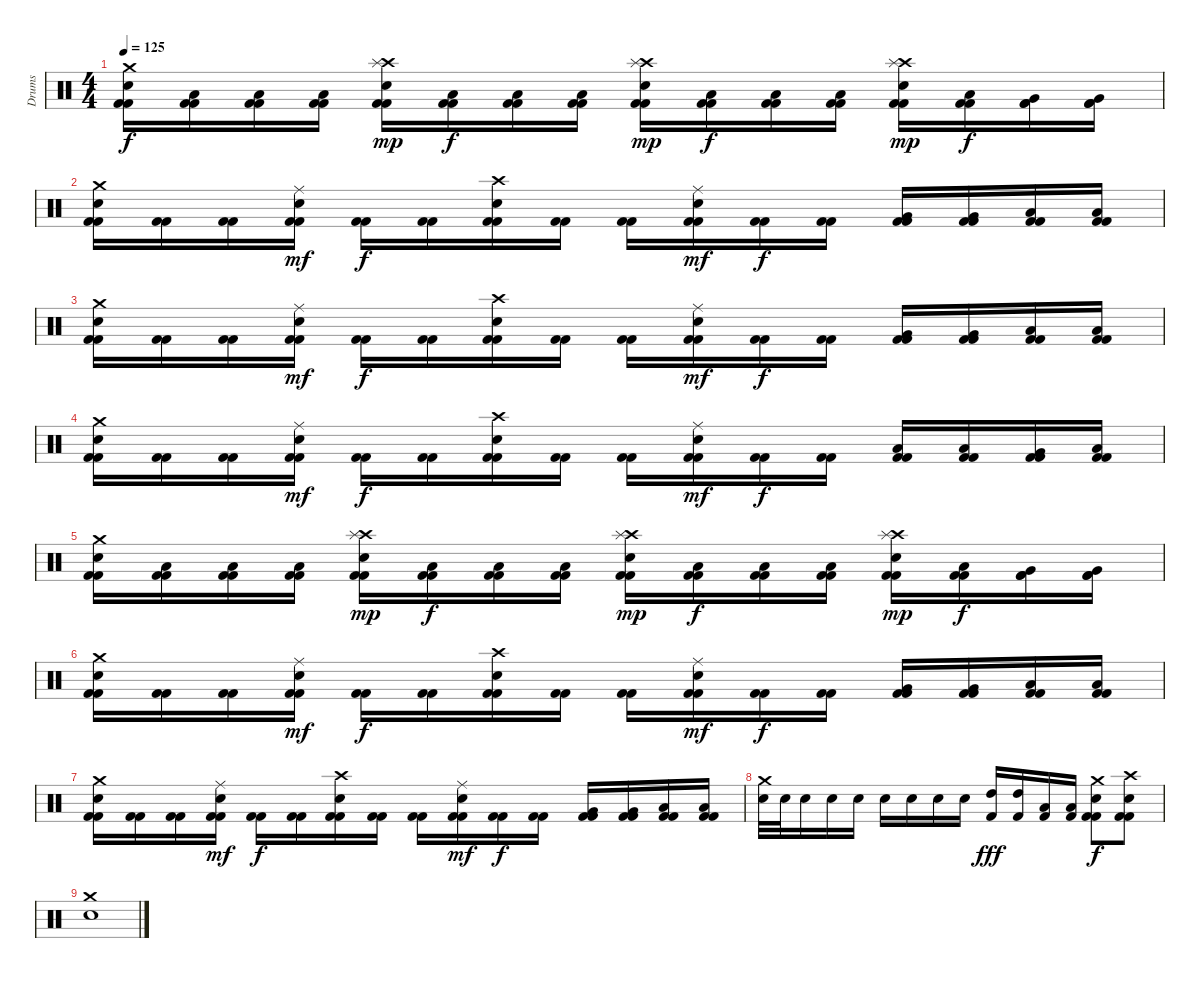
\track ("Drums" "Drums") {instrument percussion}
\staff {score}
\articulation defaults
\ts (4 4)
\tempo 125
\clef neutral
\ks c
("Crash medium (hit)" "Electric Snare (hit)" "Kick (hit) 2" "Kick (hit) 2").16{dy f} ("Low Floor Tom (hit)" "Kick (hit) 2" "Kick (hit) 2").16 ("Low Floor Tom (hit)" "Kick (hit) 2" "Kick (hit) 2").16 ("Low Floor Tom (hit)" "Kick (hit) 2" "Kick (hit) 2").16 ("Crash high (hit)" "Splash (hit)" "Electric Snare (hit)" "Kick (hit) 2" "Kick (hit) 2").16{dy mp} ("Low Floor Tom (hit)" "Kick (hit) 2" "Kick (hit) 2").16{dy f} ("Low Floor Tom (hit)" "Kick (hit) 2" "Kick (hit) 2").16 ("Low Floor Tom (hit)" "Kick (hit) 2" "Kick (hit) 2").16 ("Crash high (hit)" "Splash (hit)" "Electric Snare (hit)" "Kick (hit) 2" "Kick (hit) 2").16{dy mp} ("Low Floor Tom (hit)" "Kick (hit) 2" "Kick (hit) 2").16{dy f} ("Low Tom (hit)" "Kick (hit) 2" "Kick (hit) 2").16 ("Low Tom (hit)" "Kick (hit) 2" "Kick (hit) 2").16 ("Crash high (hit)" "Splash (hit)" "Electric Snare (hit)" "Kick (hit) 2" "Kick (hit) 2").16{dy mp} ("Low Floor Tom (hit)" "Kick (hit) 2" "Kick (hit) 2").16{dy f} ("Very Low Tom (hit)" "Kick (hit) 2" "Kick (hit) 2").16 ("Very Low Tom (hit)" "Kick (hit) 2" "Kick (hit) 2").16 |
("Crash medium (hit)" "Electric Snare (hit)" "Kick (hit) 2" "Kick (hit) 2").16 ("Kick (hit) 2" "Kick (hit) 2").16 ("Kick (hit) 2" "Kick (hit) 2").16 ("Ride (middle)" "Electric Snare (hit)" "Kick (hit) 2" "Kick (hit) 2").16{dy mf} ("Kick (hit) 2" "Kick (hit) 2").16{dy f} ("Kick (hit) 2" "Kick (hit) 2").16 ("Crash high (hit)" "Electric Snare (hit)" "Kick (hit) 2" "Kick (hit) 2").16 ("Kick (hit) 2" "Kick (hit) 2").16 ("Kick (hit) 2" "Kick (hit) 2").16 ("Ride (middle)" "Electric Snare (hit)" "Kick (hit) 2" "Kick (hit) 2").16{dy mf} ("Kick (hit) 2" "Kick (hit) 2").16{dy f} ("Kick (hit) 2" "Kick (hit) 2").16 ("Very Low Tom (hit)" "Kick (hit) 2" "Kick (hit) 2").16 ("Very Low Tom (hit)" "Kick (hit) 2" "Kick (hit) 2").16 ("Low Floor Tom (hit)" "Kick (hit) 2" "Kick (hit) 2").16 ("Low Floor Tom (hit)" "Kick (hit) 2" "Kick (hit) 2").16 |
("Crash medium (hit)" "Electric Snare (hit)" "Kick (hit) 2" "Kick (hit) 2").16 ("Kick (hit) 2" "Kick (hit) 2").16 ("Kick (hit) 2" "Kick (hit) 2").16 ("Ride (middle)" "Electric Snare (hit)" "Kick (hit) 2" "Kick (hit) 2").16{dy mf} ("Kick (hit) 2" "Kick (hit) 2").16{dy f} ("Kick (hit) 2" "Kick (hit) 2").16 ("Crash high (hit)" "Electric Snare (hit)" "Kick (hit) 2" "Kick (hit) 2").16 ("Kick (hit) 2" "Kick (hit) 2").16 ("Kick (hit) 2" "Kick (hit) 2").16 ("Ride (middle)" "Electric Snare (hit)" "Kick (hit) 2" "Kick (hit) 2").16{dy mf} ("Kick (hit) 2" "Kick (hit) 2").16{dy f} ("Kick (hit) 2" "Kick (hit) 2").16 ("Very Low Tom (hit)" "Kick (hit) 2" "Kick (hit) 2").16 ("Very Low Tom (hit)" "Kick (hit) 2" "Kick (hit) 2").16 ("Low Floor Tom (hit)" "Kick (hit) 2" "Kick (hit) 2").16 ("Low Floor Tom (hit)" "Kick (hit) 2" "Kick (hit) 2").16 |
("Crash medium (hit)" "Electric Snare (hit)" "Kick (hit) 2" "Kick (hit) 2").16 ("Kick (hit) 2" "Kick (hit) 2").16 ("Kick (hit) 2" "Kick (hit) 2").16 ("Ride (middle)" "Electric Snare (hit)" "Kick (hit) 2" "Kick (hit) 2").16{dy mf} ("Kick (hit) 2" "Kick (hit) 2").16{dy f} ("Kick (hit) 2" "Kick (hit) 2").16 ("Crash high (hit)" "Electric Snare (hit)" "Kick (hit) 2" "Kick (hit) 2").16 ("Kick (hit) 2" "Kick (hit) 2").16 ("Kick (hit) 2" "Kick (hit) 2").16 ("Ride (middle)" "Electric Snare (hit)" "Kick (hit) 2" "Kick (hit) 2").16{dy mf} ("Kick (hit) 2" "Kick (hit) 2").16{dy f} ("Kick (hit) 2" "Kick (hit) 2").16 ("Low Tom (hit)" "Kick (hit) 2" "Kick (hit) 2").16 ("Low Tom (hit)" "Kick (hit) 2" "Kick (hit) 2").16 ("Very Low Tom (hit)" "Kick (hit) 2" "Kick (hit) 2").16 ("Low Floor Tom (hit)" "Kick (hit) 2" "Kick (hit) 2").16 |
("Crash medium (hit)" "Electric Snare (hit)" "Kick (hit) 2" "Kick (hit) 2").16 ("Low Floor Tom (hit)" "Kick (hit) 2" "Kick (hit) 2").16 ("Low Floor Tom (hit)" "Kick (hit) 2" "Kick (hit) 2").16 ("Low Floor Tom (hit)" "Kick (hit) 2" "Kick (hit) 2").16 ("Crash high (hit)" "Splash (hit)" "Electric Snare (hit)" "Kick (hit) 2" "Kick (hit) 2").16{dy mp} ("Low Floor Tom (hit)" "Kick (hit) 2" "Kick (hit) 2").16{dy f} ("Low Floor Tom (hit)" "Kick (hit) 2" "Kick (hit) 2").16 ("Low Floor Tom (hit)" "Kick (hit) 2" "Kick (hit) 2").16 ("Crash high (hit)" "Splash (hit)" "Electric Snare (hit)" "Kick (hit) 2" "Kick (hit) 2").16{dy mp} ("Low Floor Tom (hit)" "Kick (hit) 2" "Kick (hit) 2").16{dy f} ("Low Tom (hit)" "Kick (hit) 2" "Kick (hit) 2").16 ("Low Tom (hit)" "Kick (hit) 2" "Kick (hit) 2").16 ("Crash high (hit)" "Splash (hit)" "Electric Snare (hit)" "Kick (hit) 2" "Kick (hit) 2").16{dy mp} ("Low Floor Tom (hit)" "Kick (hit) 2" "Kick (hit) 2").16{dy f} ("Very Low Tom (hit)" "Kick (hit) 2" "Kick (hit) 2").16 ("Very Low Tom (hit)" "Kick (hit) 2" "Kick (hit) 2").16 |
("Crash medium (hit)" "Electric Snare (hit)" "Kick (hit) 2" "Kick (hit) 2").16 ("Kick (hit) 2" "Kick (hit) 2").16 ("Kick (hit) 2" "Kick (hit) 2").16 ("Ride (middle)" "Electric Snare (hit)" "Kick (hit) 2" "Kick (hit) 2").16{dy mf} ("Kick (hit) 2" "Kick (hit) 2").16{dy f} ("Kick (hit) 2" "Kick (hit) 2").16 ("Crash high (hit)" "Electric Snare (hit)" "Kick (hit) 2" "Kick (hit) 2").16 ("Kick (hit) 2" "Kick (hit) 2").16 ("Kick (hit) 2" "Kick (hit) 2").16 ("Ride (middle)" "Electric Snare (hit)" "Kick (hit) 2" "Kick (hit) 2").16{dy mf} ("Kick (hit) 2" "Kick (hit) 2").16{dy f} ("Kick (hit) 2" "Kick (hit) 2").16 ("Very Low Tom (hit)" "Kick (hit) 2" "Kick (hit) 2").16 ("Very Low Tom (hit)" "Kick (hit) 2" "Kick (hit) 2").16 ("Low Floor Tom (hit)" "Kick (hit) 2" "Kick (hit) 2").16 ("Low Floor Tom (hit)" "Kick (hit) 2" "Kick (hit) 2").16 |
("Crash medium (hit)" "Electric Snare (hit)" "Kick (hit) 2" "Kick (hit) 2").16 ("Kick (hit) 2" "Kick (hit) 2").16 ("Kick (hit) 2" "Kick (hit) 2").16 ("Ride (middle)" "Electric Snare (hit)" "Kick (hit) 2" "Kick (hit) 2").16{dy mf} ("Kick (hit) 2" "Kick (hit) 2").16{dy f} ("Kick (hit) 2" "Kick (hit) 2").16 ("Crash high (hit)" "Electric Snare (hit)" "Kick (hit) 2" "Kick (hit) 2").16 ("Kick (hit) 2" "Kick (hit) 2").16 ("Kick (hit) 2" "Kick (hit) 2").16 ("Ride (middle)" "Electric Snare (hit)" "Kick (hit) 2" "Kick (hit) 2").16{dy mf} ("Kick (hit) 2" "Kick (hit) 2").16{dy f} ("Kick (hit) 2" "Kick (hit) 2").16 ("Very Low Tom (hit)" "Kick (hit) 2" "Kick (hit) 2").16 ("Very Low Tom (hit)" "Kick (hit) 2" "Kick (hit) 2").16 ("Low Floor Tom (hit)" "Kick (hit) 2" "Kick (hit) 2").16 ("Low Floor Tom (hit)" "Kick (hit) 2" "Kick (hit) 2").16 |
("Crash medium (hit)" "Electric Snare (hit)").32 "Electric Snare (hit)".32 "Electric Snare (hit)".16 "Electric Snare (hit)".16 "Electric Snare (hit)".16 "Electric Snare (hit)".16 "Electric Snare (hit)".16 "Electric Snare (hit)".16 "Electric Snare (hit)".16 ("High Tom (hit)" "Kick (hit) 2").16{dy fff} ("High Tom (hit)" "Kick (hit) 2").16 ("Low Tom (hit)" "Kick (hit) 2").16 ("Low Tom (hit)" "Kick (hit) 2").16 ("Crash medium (hit)" "Electric Snare (hit)" "Kick (hit) 2" "Kick (hit) 2").8{dy f} ("Crash high (hit)" "Electric Snare (hit)" "Kick (hit) 2" "Kick (hit) 2").8 |
("Crash medium (hit)" "Electric Snare (hit)").1
